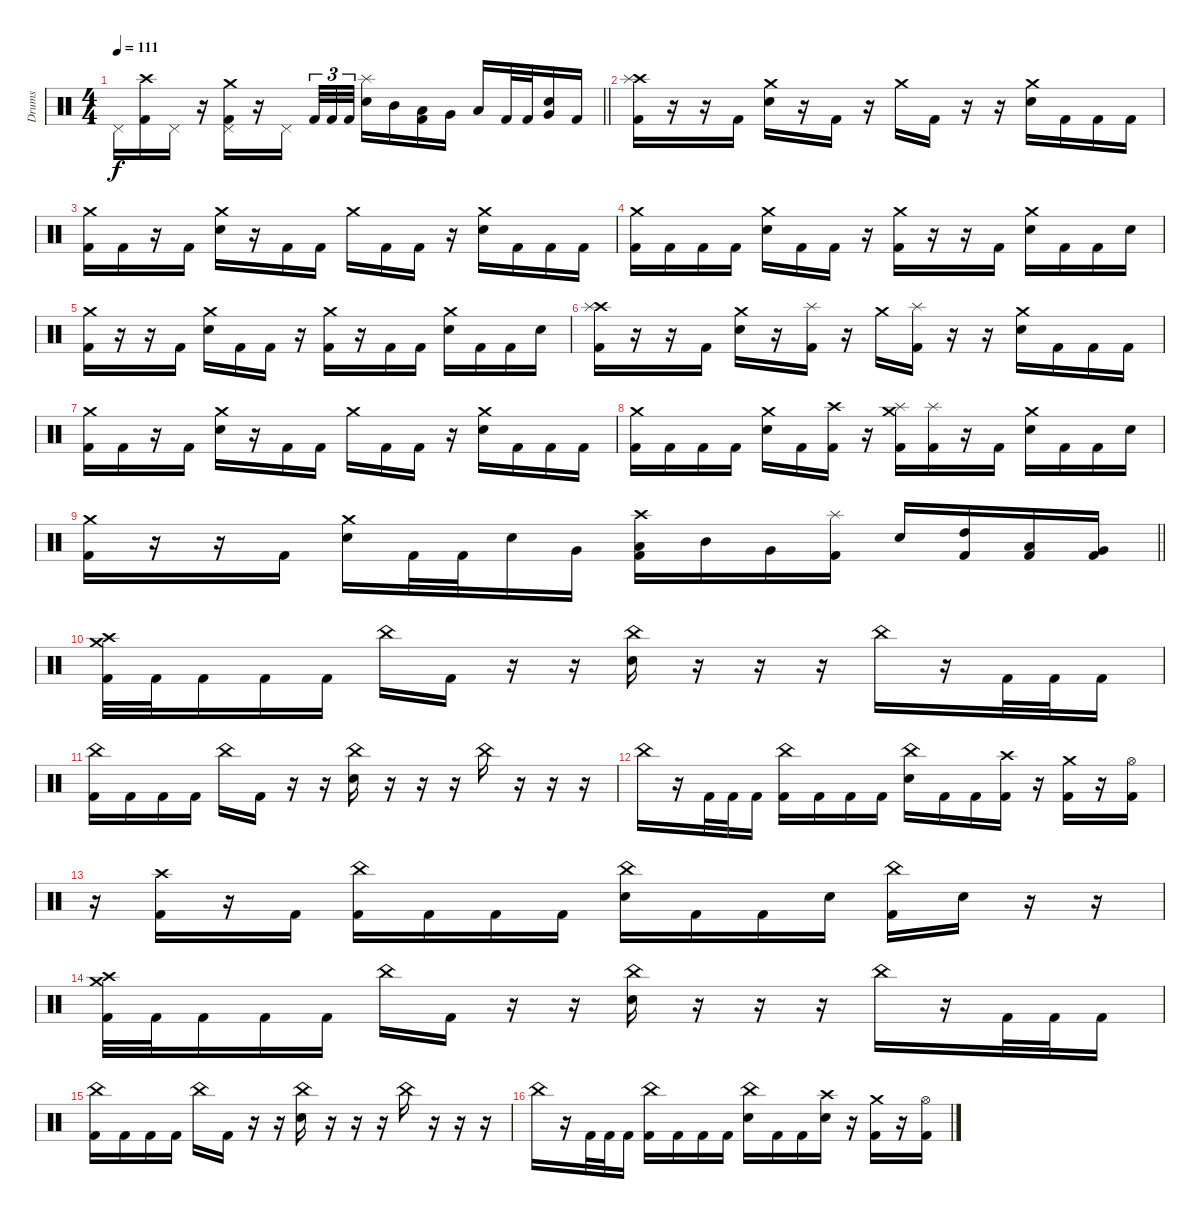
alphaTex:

\track ("Drums" "Drums") {instrument percussion}
\staff {score}
\articulation defaults
\ts (4 4)
\tempo 111
\clef neutral
\barLineRight lightlight
\ks c "Pedal Hi-Hat (hit)".16{dy f}
("Crash high (hit)" "Kick (hit) 2").16 "Pedal Hi-Hat (hit)".16 r.16 ("Crash medium (hit)" "Pedal Hi-Hat (hit)" "Kick (hit) 2").16 r.16 "Pedal Hi-Hat (hit)".16 "Kick (hit) 2".32{tu (3 2)} "Kick (hit) 2".32{tu (3 2)} "Kick (hit) 2".32{tu (3 2)} ("Splash (hit)" "Electric Snare (hit)").16 "Mid Tom (hit)".16 ("Low Tom (hit)" "Kick (hit) 2").16 "Very Low Tom (hit)".16 "Low Tom (hit)".16 "Kick (hit) 2".32 "Kick (hit) 2".32 ("Very Low Tom (hit)" "Electric Snare (hit)").16 "Kick (hit) 2".16 |
\section ("" "")
("Crash high (hit)" "Splash (hit)" "Kick (hit) 2").16 r.16 r.16 "Kick (hit) 2".16 ("Crash medium (hit)" "Electric Snare (hit)").16 r.16 "Kick (hit) 2".16 r.16 "Crash medium (hit)".16 "Kick (hit) 2".16 r.16 r.16 ("Crash medium (hit)" "Electric Snare (hit)").16 "Kick (hit) 2".16 "Kick (hit) 2".16 "Kick (hit) 2".16 |
("Crash medium (hit)" "Kick (hit) 2").16 "Kick (hit) 2".16 r.16 "Kick (hit) 2".16 ("Crash medium (hit)" "Electric Snare (hit)").16 r.16 "Kick (hit) 2".16 "Kick (hit) 2".16 "Crash medium (hit)".16 "Kick (hit) 2".16 "Kick (hit) 2".16 r.16 ("Crash medium (hit)" "Electric Snare (hit)").16 "Kick (hit) 2".16 "Kick (hit) 2".16 "Kick (hit) 2".16 |
("Crash medium (hit)" "Kick (hit) 2").16 "Kick (hit) 2".16 "Kick (hit) 2".16 "Kick (hit) 2".16 ("Crash medium (hit)" "Electric Snare (hit)").16 "Kick (hit) 2".16 "Kick (hit) 2".16 r.16 ("Crash medium (hit)" "Kick (hit) 2").16 r.16 r.16 "Kick (hit) 2".16 ("Crash medium (hit)" "Electric Snare (hit)").16 "Kick (hit) 2".16 "Kick (hit) 2".16 "Electric Snare (hit)".16 |
("Crash medium (hit)" "Kick (hit) 2").16 r.16 r.16 "Kick (hit) 2".16 ("Crash medium (hit)" "Electric Snare (hit)").16 "Kick (hit) 2".16 "Kick (hit) 2".16 r.16 ("Crash medium (hit)" "Kick (hit) 2").16 r.16 "Kick (hit) 2".16 "Kick (hit) 2".16 ("Crash medium (hit)" "Electric Snare (hit)").16 "Kick (hit) 2".16 "Kick (hit) 2".16 "Electric Snare (hit)".16 |
("Crash high (hit)" "Splash (hit)" "Kick (hit) 2").16 r.16 r.16 "Kick (hit) 2".16 ("Crash medium (hit)" "Electric Snare (hit)").16 r.16 ("Splash (hit)" "Kick (hit) 2").16 r.16 "Crash medium (hit)".16 ("Splash (hit)" "Kick (hit) 2").16 r.16 r.16 ("Crash medium (hit)" "Electric Snare (hit)").16 "Kick (hit) 2".16 "Kick (hit) 2".16 "Kick (hit) 2".16 |
("Crash medium (hit)" "Kick (hit) 2").16 "Kick (hit) 2".16 r.16 "Kick (hit) 2".16 ("Crash medium (hit)" "Electric Snare (hit)").16 r.16 "Kick (hit) 2".16 "Kick (hit) 2".16 "Crash medium (hit)".16 "Kick (hit) 2".16 "Kick (hit) 2".16 r.16 ("Crash medium (hit)" "Electric Snare (hit)").16 "Kick (hit) 2".16 "Kick (hit) 2".16 "Kick (hit) 2".16 |
("Crash medium (hit)" "Kick (hit) 2").16 "Kick (hit) 2".16 "Kick (hit) 2".16 "Kick (hit) 2".16 ("Crash medium (hit)" "Electric Snare (hit)").16 "Kick (hit) 2".16 ("Crash high (hit)" "Kick (hit) 2").16 r.16 ("Crash medium (hit)" "Splash (hit)" "Kick (hit) 2").16 ("Splash (hit)" "Kick (hit) 2").16 r.16 "Kick (hit) 2".16 ("Crash medium (hit)" "Electric Snare (hit)").16 "Kick (hit) 2".16 "Kick (hit) 2".16 "Electric Snare (hit)".16 |
\barLineRight lightlight
("Crash medium (hit)" "Kick (hit) 2").16 r.16 r.16 "Kick (hit) 2".16 ("Crash medium (hit)" "Electric Snare (hit)").16 "Kick (hit) 2".32 "Kick (hit) 2".32 "Electric Snare (hit)".16 "Very Low Tom (hit)".16 ("Crash high (hit)" "Low Tom (hit)" "Kick (hit) 2").16 "Mid Tom (hit)".16 "Very Low Tom (hit)".16 ("Splash (hit)" "Kick (hit) 2").16 "Electric Snare (hit)".16 ("High Tom (hit)" "Kick (hit) 2").16 ("Low Tom (hit)" "Kick (hit) 2").16 ("Very Low Tom (hit)" "Kick (hit) 2").16 |
\section ("" "")
("Crash medium (hit)" "Crash high (hit)" "Kick (hit) 2").32 "Kick (hit) 2".32 "Kick (hit) 2".16 "Kick (hit) 2".16 "Kick (hit) 2".16 "China (hit)".16 "Kick (hit) 2".16 r.16 r.16 ("China (hit)" "Electric Snare (hit)").16 r.16 r.16 r.16 "China (hit)".16 r.16 "Kick (hit) 2".32 "Kick (hit) 2".32 "Kick (hit) 2".16 |
("China (hit)" "Kick (hit) 2").16 "Kick (hit) 2".16 "Kick (hit) 2".16 "Kick (hit) 2".16 "China (hit)".16 "Kick (hit) 2".16 r.16 r.16 ("China (hit)" "Electric Snare (hit)").16 r.16 r.16 r.16 "China (hit)".16 r.16 r.16 r.16 |
"China (hit)".16 r.16 "Kick (hit) 2".32 "Kick (hit) 2".32 "Kick (hit) 2".16 ("China (hit)" "Kick (hit) 2").16 "Kick (hit) 2".16 "Kick (hit) 2".16 "Kick (hit) 2".16 ("China (hit)" "Electric Snare (hit)").16 "Kick (hit) 2".16 "Kick (hit) 2".16 ("Crash high (hit)" "Kick (hit) 2").16 r.16 ("Crash medium (hit)" "Kick (hit) 2").16 r.16 ("Hi-Hat (open)" "Kick (hit) 2").16 |
r.16 ("Crash high (hit)" "Kick (hit) 2").16 r.16 "Kick (hit) 2".16 ("China (hit)" "Kick (hit) 2").16 "Kick (hit) 2".16 "Kick (hit) 2".16 "Kick (hit) 2".16 ("China (hit)" "Electric Snare (hit)").16 "Kick (hit) 2".16 "Kick (hit) 2".16 "Electric Snare (hit)".16 ("China (hit)" "Kick (hit) 2").16 "Electric Snare (hit)".16 r.16 r.16 |
("Crash medium (hit)" "Crash high (hit)" "Kick (hit) 2").32 "Kick (hit) 2".32 "Kick (hit) 2".16 "Kick (hit) 2".16 "Kick (hit) 2".16 "China (hit)".16 "Kick (hit) 2".16 r.16 r.16 ("China (hit)" "Electric Snare (hit)").16 r.16 r.16 r.16 "China (hit)".16 r.16 "Kick (hit) 2".32 "Kick (hit) 2".32 "Kick (hit) 2".16 |
("China (hit)" "Kick (hit) 2").16 "Kick (hit) 2".16 "Kick (hit) 2".16 "Kick (hit) 2".16 "China (hit)".16 "Kick (hit) 2".16 r.16 r.16 ("China (hit)" "Electric Snare (hit)").16 r.16 r.16 r.16 "China (hit)".16 r.16 r.16 r.16 |
"China (hit)".16 r.16 "Kick (hit) 2".32 "Kick (hit) 2".32 "Kick (hit) 2".16 ("China (hit)" "Kick (hit) 2").16 "Kick (hit) 2".16 "Kick (hit) 2".16 "Kick (hit) 2".16 ("China (hit)" "Electric Snare (hit)").16 "Kick (hit) 2".16 "Kick (hit) 2".16 ("Crash high (hit)" "Electric Snare (hit)").16 r.16 ("Crash medium (hit)" "Kick (hit) 2").16 r.16 ("Hi-Hat (open)" "Kick (hit) 2").16
